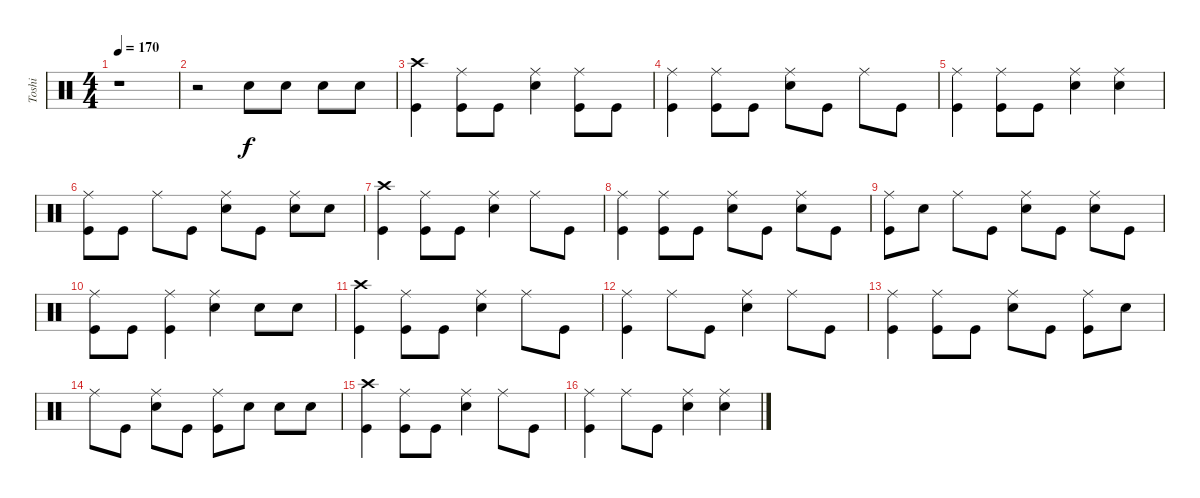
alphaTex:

\track ("Toshi" "Toshi") {instrument percussion}
\staff {score}
\articulation defaults
\ts (4 4)
\tempo 170
\clef neutral
\ks c
r.1{dy f} |
r.2 "Snare (hit) 2".8 "Snare (hit) 2".8 "Snare (hit) 2".8 "Snare (hit) 2".8 |
("Crash high (hit)" "Kick (hit)").4 ("Ride (middle)" "Kick (hit)").8 "Kick (hit)".8 ("Ride (middle)" "Snare (hit) 2").4 ("Ride (middle)" "Kick (hit)").8 "Kick (hit)".8 |
("Ride (middle)" "Kick (hit)").4 ("Ride (middle)" "Kick (hit)").8 "Kick (hit)".8 ("Ride (middle)" "Snare (hit) 2").8 "Kick (hit)".8 "Ride (middle)".8 "Kick (hit)".8 |
("Ride (middle)" "Kick (hit)").4 ("Ride (middle)" "Kick (hit)").8 "Kick (hit)".8 ("Ride (middle)" "Snare (hit) 2").4 ("Ride (middle)" "Snare (hit) 2").4 |
("Ride (middle)" "Kick (hit)").8 "Kick (hit)".8 "Ride (middle)".8 "Kick (hit)".8 ("Ride (middle)" "Snare (hit) 2").8 "Kick (hit)".8 ("Ride (middle)" "Snare (hit) 2").8 "Snare (hit) 2".8 |
("Crash high (hit)" "Kick (hit)").4 ("Ride (middle)" "Kick (hit)").8 "Kick (hit)".8 ("Ride (middle)" "Snare (hit) 2").4 "Ride (middle)".8 "Kick (hit)".8 |
("Ride (middle)" "Kick (hit)").4 ("Ride (middle)" "Kick (hit)").8 "Kick (hit)".8 ("Ride (middle)" "Snare (hit) 2").8 "Kick (hit)".8 ("Ride (middle)" "Snare (hit) 2").8 "Kick (hit)".8 |
("Ride (middle)" "Kick (hit)").8 "Snare (hit) 2".8 "Ride (middle)".8 "Kick (hit)".8 ("Ride (middle)" "Snare (hit) 2").8 "Kick (hit)".8 ("Ride (middle)" "Snare (hit) 2").8 "Kick (hit)".8 |
("Ride (middle)" "Kick (hit)").8 "Kick (hit)".8 ("Ride (middle)" "Kick (hit)").4 ("Ride (middle)" "Snare (hit) 2").4 "Snare (hit) 2".8 "Snare (hit) 2".8 |
("Crash high (hit)" "Kick (hit)").4 ("Ride (middle)" "Kick (hit)").8 "Kick (hit)".8 ("Ride (middle)" "Snare (hit) 2").4 "Ride (middle)".8 "Kick (hit)".8 |
("Ride (middle)" "Kick (hit)").4 "Ride (middle)".8 "Kick (hit)".8 ("Ride (middle)" "Snare (hit) 2").4 "Ride (middle)".8 "Kick (hit)".8 |
("Ride (middle)" "Kick (hit)").4 ("Ride (middle)" "Kick (hit)").8 "Kick (hit)".8 ("Ride (middle)" "Snare (hit) 2").8 "Kick (hit)".8 ("Ride (middle)" "Kick (hit)").8 "Snare (hit) 2".8 |
"Ride (middle)".8 "Kick (hit)".8 ("Ride (middle)" "Snare (hit) 2").8 "Kick (hit)".8 ("Ride (middle)" "Kick (hit)").8 "Snare (hit) 2".8 "Snare (hit) 2".8 "Snare (hit) 2".8 |
("Crash high (hit)" "Kick (hit)").4 ("Ride (middle)" "Kick (hit)").8 "Kick (hit)".8 ("Ride (middle)" "Snare (hit) 2").4 "Ride (middle)".8 "Kick (hit)".8 |
("Ride (middle)" "Kick (hit)").4 "Ride (middle)".8 "Kick (hit)".8 ("Ride (middle)" "Snare (hit) 2").4 ("Ride (middle)" "Snare (hit) 2").4
